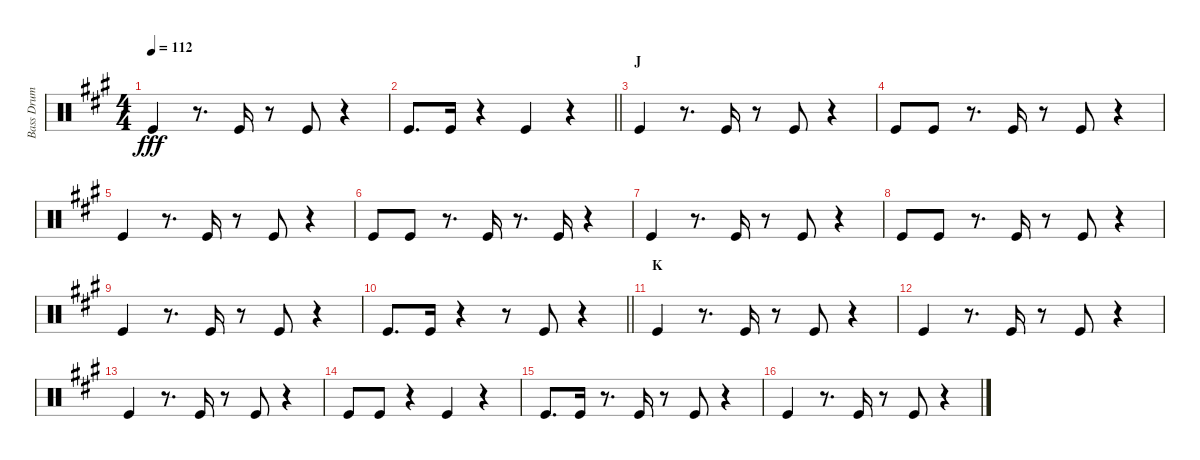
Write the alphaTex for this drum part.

\track ("Bass Drum" "Bass Drum") {instrument percussion}
\staff {score}
\articulation defaults
\ts (4 4)
\tempo 112
\clef neutral
\ks a "Kick (hit)".4{dy fff}
r.8{d} "Kick (hit)".16 r.8 "Kick (hit)".8 r.4 |
\barLineRight lightlight "Kick (hit)".8{d} "Kick (hit)".16
r.4 "Kick (hit)".4 r.4 |
\section ("" "J")
"Kick (hit)".4 r.8{d} "Kick (hit)".16 r.8 "Kick (hit)".8 r.4 |
"Kick (hit)".8 "Kick (hit)".8 r.8{d} "Kick (hit)".16 r.8 "Kick (hit)".8 r.4 |
"Kick (hit)".4 r.8{d} "Kick (hit)".16 r.8 "Kick (hit)".8 r.4 |
"Kick (hit)".8 "Kick (hit)".8 r.8{d} "Kick (hit)".16 r.8{d} "Kick (hit)".16 r.4 |
"Kick (hit)".4 r.8{d} "Kick (hit)".16 r.8 "Kick (hit)".8 r.4 |
"Kick (hit)".8 "Kick (hit)".8 r.8{d} "Kick (hit)".16 r.8 "Kick (hit)".8 r.4 |
"Kick (hit)".4 r.8{d} "Kick (hit)".16 r.8 "Kick (hit)".8 r.4 |
\barLineRight lightlight "Kick (hit)".8{d} "Kick (hit)".16
r.4 r.8 "Kick (hit)".8 r.4 |
\section ("" "K")
"Kick (hit)".4 r.8{d} "Kick (hit)".16 r.8 "Kick (hit)".8 r.4 |
"Kick (hit)".4 r.8{d} "Kick (hit)".16 r.8 "Kick (hit)".8 r.4 |
"Kick (hit)".4 r.8{d} "Kick (hit)".16 r.8 "Kick (hit)".8 r.4 |
"Kick (hit)".8 "Kick (hit)".8 r.4 "Kick (hit)".4 r.4 |
"Kick (hit)".8{d} "Kick (hit)".16 r.8{d} "Kick (hit)".16 r.8 "Kick (hit)".8 r.4 |
"Kick (hit)".4 r.8{d} "Kick (hit)".16 r.8 "Kick (hit)".8 r.4
